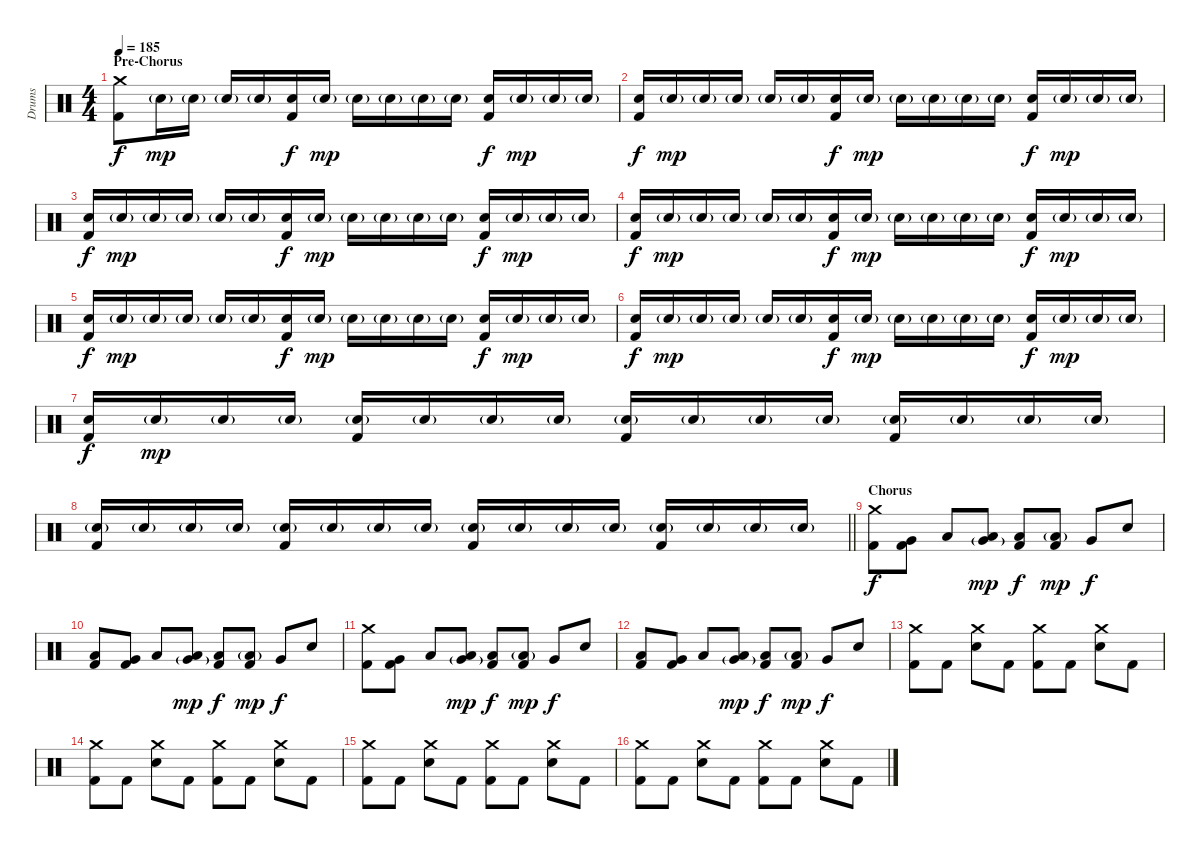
\track ("Drums" "Drums") {instrument percussion}
\staff {score}
\articulation defaults
\ts (4 4)
\section ("" "Pre-Chorus")
\tempo 185
\clef neutral
\ks c
("Crash medium (hit)" "Kick (hit) 2").8{dy f} "Electric Snare (hit)"{g}.16{dy mp} "Electric Snare (hit)"{g}.16 "Electric Snare (hit)"{g}.16 "Electric Snare (hit)"{g}.16 ("Electric Snare (hit)" "Kick (hit) 2").16{dy f} "Electric Snare (hit)"{g}.16{dy mp} "Electric Snare (hit)"{g}.16 "Electric Snare (hit)"{g}.16 "Electric Snare (hit)"{g}.16 "Electric Snare (hit)"{g}.16 ("Electric Snare (hit)" "Kick (hit) 2").16{dy f} "Electric Snare (hit)"{g}.16{dy mp} "Electric Snare (hit)"{g}.16 "Electric Snare (hit)"{g}.16 |
("Electric Snare (hit)" "Kick (hit) 2").16{dy f} "Electric Snare (hit)"{g}.16{dy mp} "Electric Snare (hit)"{g}.16 "Electric Snare (hit)"{g}.16 "Electric Snare (hit)"{g}.16 "Electric Snare (hit)"{g}.16 ("Electric Snare (hit)" "Kick (hit) 2").16{dy f} "Electric Snare (hit)"{g}.16{dy mp} "Electric Snare (hit)"{g}.16 "Electric Snare (hit)"{g}.16 "Electric Snare (hit)"{g}.16 "Electric Snare (hit)"{g}.16 ("Electric Snare (hit)" "Kick (hit) 2").16{dy f} "Electric Snare (hit)"{g}.16{dy mp} "Electric Snare (hit)"{g}.16 "Electric Snare (hit)"{g}.16 |
("Electric Snare (hit)" "Kick (hit) 2").16{dy f} "Electric Snare (hit)"{g}.16{dy mp} "Electric Snare (hit)"{g}.16 "Electric Snare (hit)"{g}.16 "Electric Snare (hit)"{g}.16 "Electric Snare (hit)"{g}.16 ("Electric Snare (hit)" "Kick (hit) 2").16{dy f} "Electric Snare (hit)"{g}.16{dy mp} "Electric Snare (hit)"{g}.16 "Electric Snare (hit)"{g}.16 "Electric Snare (hit)"{g}.16 "Electric Snare (hit)"{g}.16 ("Electric Snare (hit)" "Kick (hit) 2").16{dy f} "Electric Snare (hit)"{g}.16{dy mp} "Electric Snare (hit)"{g}.16 "Electric Snare (hit)"{g}.16 |
("Electric Snare (hit)" "Kick (hit) 2").16{dy f} "Electric Snare (hit)"{g}.16{dy mp} "Electric Snare (hit)"{g}.16 "Electric Snare (hit)"{g}.16 "Electric Snare (hit)"{g}.16 "Electric Snare (hit)"{g}.16 ("Electric Snare (hit)" "Kick (hit) 2").16{dy f} "Electric Snare (hit)"{g}.16{dy mp} "Electric Snare (hit)"{g}.16 "Electric Snare (hit)"{g}.16 "Electric Snare (hit)"{g}.16 "Electric Snare (hit)"{g}.16 ("Electric Snare (hit)" "Kick (hit) 2").16{dy f} "Electric Snare (hit)"{g}.16{dy mp} "Electric Snare (hit)"{g}.16 "Electric Snare (hit)"{g}.16 |
("Electric Snare (hit)" "Kick (hit) 2").16{dy f} "Electric Snare (hit)"{g}.16{dy mp} "Electric Snare (hit)"{g}.16 "Electric Snare (hit)"{g}.16 "Electric Snare (hit)"{g}.16 "Electric Snare (hit)"{g}.16 ("Electric Snare (hit)" "Kick (hit) 2").16{dy f} "Electric Snare (hit)"{g}.16{dy mp} "Electric Snare (hit)"{g}.16 "Electric Snare (hit)"{g}.16 "Electric Snare (hit)"{g}.16 "Electric Snare (hit)"{g}.16 ("Electric Snare (hit)" "Kick (hit) 2").16{dy f} "Electric Snare (hit)"{g}.16{dy mp} "Electric Snare (hit)"{g}.16 "Electric Snare (hit)"{g}.16 |
("Electric Snare (hit)" "Kick (hit) 2").16{dy f} "Electric Snare (hit)"{g}.16{dy mp} "Electric Snare (hit)"{g}.16 "Electric Snare (hit)"{g}.16 "Electric Snare (hit)"{g}.16 "Electric Snare (hit)"{g}.16 ("Electric Snare (hit)" "Kick (hit) 2").16{dy f} "Electric Snare (hit)"{g}.16{dy mp} "Electric Snare (hit)"{g}.16 "Electric Snare (hit)"{g}.16 "Electric Snare (hit)"{g}.16 "Electric Snare (hit)"{g}.16 ("Electric Snare (hit)" "Kick (hit) 2").16{dy f} "Electric Snare (hit)"{g}.16{dy mp} "Electric Snare (hit)"{g}.16 "Electric Snare (hit)"{g}.16 |
("Electric Snare (hit)" "Kick (hit) 2").16{dy f volume 8} "Electric Snare (hit)"{g}.16{dy mp volume 12} "Electric Snare (hit)"{g}.16 "Electric Snare (hit)"{g}.16 ("Electric Snare (hit)"{g} "Kick (hit) 2").16 "Electric Snare (hit)"{g}.16 "Electric Snare (hit)"{g}.16 "Electric Snare (hit)"{g}.16 ("Electric Snare (hit)"{g} "Kick (hit) 2").16 "Electric Snare (hit)"{g}.16 "Electric Snare (hit)"{g}.16 "Electric Snare (hit)"{g}.16 ("Electric Snare (hit)"{g} "Kick (hit) 2").16 "Electric Snare (hit)"{g}.16 "Electric Snare (hit)"{g}.16 "Electric Snare (hit)"{g}.16 |
\barLineRight lightlight
("Electric Snare (hit)"{g} "Kick (hit) 2").16 "Electric Snare (hit)"{g}.16 "Electric Snare (hit)"{g}.16 "Electric Snare (hit)"{g}.16 ("Electric Snare (hit)"{g} "Kick (hit) 2").16 "Electric Snare (hit)"{g}.16 "Electric Snare (hit)"{g}.16 "Electric Snare (hit)"{g}.16 ("Electric Snare (hit)"{g} "Kick (hit) 2").16 "Electric Snare (hit)"{g}.16 "Electric Snare (hit)"{g}.16 "Electric Snare (hit)"{g}.16 ("Electric Snare (hit)"{g} "Kick (hit) 2").16 "Electric Snare (hit)"{g}.16 "Electric Snare (hit)"{g}.16 "Electric Snare (hit)"{g}.16 |
\section ("" "Chorus")
("Crash medium (hit)" "Kick (hit) 2").8{dy f} ("Very Low Tom (hit)" "Kick (hit) 2").8 "Low Floor Tom (hit)".8 ("Low Tom (hit)" "Very Low Tom (hit)"{g}).8{dy mp} ("Low Floor Tom (hit)" "Kick (hit) 2").8{dy f} ("Low Floor Tom (hit)"{g} "Kick (hit) 2").8{dy mp} "Very Low Tom (hit)".8{dy f} "Electric Snare (hit)".8 |
("Low Tom (hit)" "Kick (hit) 2").8 ("Very Low Tom (hit)" "Kick (hit) 2").8 "Low Floor Tom (hit)".8 ("Low Tom (hit)" "Very Low Tom (hit)"{g}).8{dy mp} ("Low Floor Tom (hit)" "Kick (hit) 2").8{dy f} ("Low Floor Tom (hit)"{g} "Kick (hit) 2").8{dy mp} "Very Low Tom (hit)".8{dy f} "Electric Snare (hit)".8 |
("Crash medium (hit)" "Kick (hit) 2").8 ("Very Low Tom (hit)" "Kick (hit) 2").8 "Low Floor Tom (hit)".8 ("Low Tom (hit)" "Very Low Tom (hit)"{g}).8{dy mp} ("Low Floor Tom (hit)" "Kick (hit) 2").8{dy f} ("Low Floor Tom (hit)"{g} "Kick (hit) 2").8{dy mp} "Very Low Tom (hit)".8{dy f} "Electric Snare (hit)".8 |
("Low Tom (hit)" "Kick (hit) 2").8 ("Very Low Tom (hit)" "Kick (hit) 2").8 "Low Floor Tom (hit)".8 ("Low Tom (hit)" "Very Low Tom (hit)"{g}).8{dy mp} ("Low Floor Tom (hit)" "Kick (hit) 2").8{dy f} ("Low Floor Tom (hit)"{g} "Kick (hit) 2").8{dy mp} "Very Low Tom (hit)".8{dy f} "Electric Snare (hit)".8 |
("Crash medium (hit)" "Kick (hit) 2").8 "Kick (hit) 2".8 ("Crash medium (hit)" "Electric Snare (hit)").8 "Kick (hit) 2".8 ("Crash medium (hit)" "Kick (hit) 2").8 "Kick (hit) 2".8 ("Crash medium (hit)" "Electric Snare (hit)").8 "Kick (hit) 2".8 |
("Crash medium (hit)" "Kick (hit) 2").8 "Kick (hit) 2".8 ("Crash medium (hit)" "Electric Snare (hit)").8 "Kick (hit) 2".8 ("Crash medium (hit)" "Kick (hit) 2").8 "Kick (hit) 2".8 ("Crash medium (hit)" "Electric Snare (hit)").8 "Kick (hit) 2".8 |
("Crash medium (hit)" "Kick (hit) 2").8 "Kick (hit) 2".8 ("Crash medium (hit)" "Electric Snare (hit)").8 "Kick (hit) 2".8 ("Crash medium (hit)" "Kick (hit) 2").8 "Kick (hit) 2".8 ("Crash medium (hit)" "Electric Snare (hit)").8 "Kick (hit) 2".8 |
("Crash medium (hit)" "Kick (hit) 2").8 "Kick (hit) 2".8 ("Crash medium (hit)" "Electric Snare (hit)").8 "Kick (hit) 2".8 ("Crash medium (hit)" "Kick (hit) 2").8 "Kick (hit) 2".8 ("Crash medium (hit)" "Electric Snare (hit)").8 "Kick (hit) 2".8
